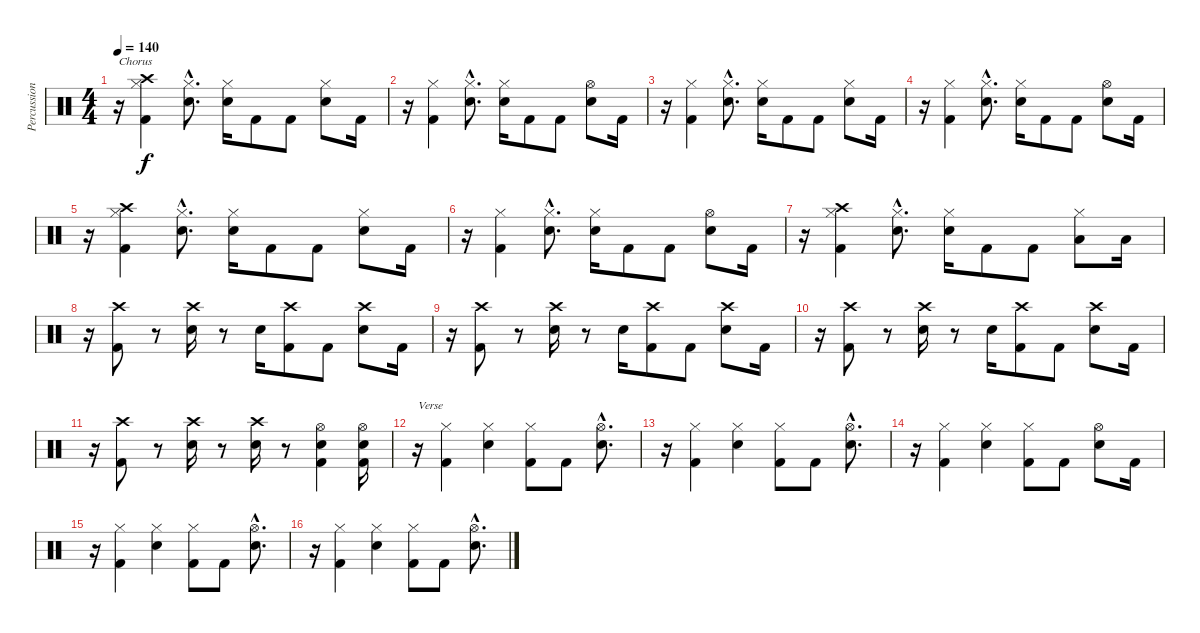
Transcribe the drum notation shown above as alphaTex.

\track ("Percussion" "Percussion") {instrument percussion}
\staff {score}
\articulation defaults
\ts (4 4)
\tempo 140
\clef neutral
\ks c
r.16{txt "Chorus" dy f} ("Crash high (hit)" "Hi-Hat (closed)" "Kick (hit) 2").4 ("Hi-Hat (closed)"{hac} "Electric Snare (hit)"{hac}).8{d} ("Hi-Hat (closed)" "Electric Snare (hit)").16 "Kick (hit) 2".8 "Kick (hit) 2".8 ("Hi-Hat (closed)" "Electric Snare (hit)").8 "Kick (hit) 2".16 |
r.16 ("Hi-Hat (closed)" "Kick (hit) 2").4 ("Hi-Hat (closed)"{hac} "Electric Snare (hit)"{hac}).8{d} ("Hi-Hat (closed)" "Electric Snare (hit)").16 "Kick (hit) 2".8 "Kick (hit) 2".8 ("Hi-Hat (open)" "Electric Snare (hit)").8 "Kick (hit) 2".16 |
r.16 ("Hi-Hat (closed)" "Kick (hit) 2").4 ("Hi-Hat (closed)"{hac} "Electric Snare (hit)"{hac}).8{d} ("Hi-Hat (closed)" "Electric Snare (hit)").16 "Kick (hit) 2".8 "Kick (hit) 2".8 ("Hi-Hat (closed)" "Electric Snare (hit)").8 "Kick (hit) 2".16 |
r.16 ("Hi-Hat (closed)" "Kick (hit) 2").4 ("Hi-Hat (closed)"{hac} "Electric Snare (hit)"{hac}).8{d} ("Hi-Hat (closed)" "Electric Snare (hit)").16 "Kick (hit) 2".8 "Kick (hit) 2".8 ("Hi-Hat (open)" "Electric Snare (hit)").8 "Kick (hit) 2".16 |
r.16 ("Crash high (hit)" "Hi-Hat (closed)" "Kick (hit) 2").4 ("Hi-Hat (closed)"{hac} "Electric Snare (hit)"{hac}).8{d} ("Hi-Hat (closed)" "Electric Snare (hit)").16 "Kick (hit) 2".8 "Kick (hit) 2".8 ("Hi-Hat (closed)" "Electric Snare (hit)").8 "Kick (hit) 2".16 |
r.16 ("Hi-Hat (closed)" "Kick (hit) 2").4 ("Hi-Hat (closed)"{hac} "Electric Snare (hit)"{hac}).8{d} ("Hi-Hat (closed)" "Electric Snare (hit)").16 "Kick (hit) 2".8 "Kick (hit) 2".8 ("Hi-Hat (open)" "Electric Snare (hit)").8 "Kick (hit) 2".16 |
r.16 ("Crash high (hit)" "Hi-Hat (closed)" "Kick (hit) 2").4 ("Hi-Hat (closed)"{hac} "Electric Snare (hit)"{hac}).8{d} ("Hi-Hat (closed)" "Electric Snare (hit)").16 "Kick (hit) 2".8 "Kick (hit) 2".8 ("Hi-Hat (closed)" "Low Tom (hit)").8 "Low Tom (hit)".16 |
r.16 ("Crash high (hit)" "Kick (hit) 2").8 r.8 ("Crash high (hit)" "Electric Snare (hit)").16 r.8 "Electric Snare (hit)".16 ("Crash high (hit)" "Kick (hit) 2").8 "Kick (hit) 2".8 ("Crash high (hit)" "Electric Snare (hit)").8 "Kick (hit) 2".16 |
r.16 ("Crash high (hit)" "Kick (hit) 2").8 r.8 ("Crash high (hit)" "Electric Snare (hit)").16 r.8 "Electric Snare (hit)".16 ("Crash high (hit)" "Kick (hit) 2").8 "Kick (hit) 2".8 ("Crash high (hit)" "Electric Snare (hit)").8 "Kick (hit) 2".16 |
r.16 ("Crash high (hit)" "Kick (hit) 2").8 r.8 ("Crash high (hit)" "Electric Snare (hit)").16 r.8 "Electric Snare (hit)".16 ("Crash high (hit)" "Kick (hit) 2").8 "Kick (hit) 2".8 ("Crash high (hit)" "Electric Snare (hit)").8 "Kick (hit) 2".16 |
r.16 ("Crash high (hit)" "Kick (hit) 2").8 r.8 ("Crash high (hit)" "Electric Snare (hit)").16 r.8 ("Crash high (hit)" "Electric Snare (hit)").16 r.8 ("Hi-Hat (open)" "Electric Snare (hit)" "Kick (hit) 2").4 ("Hi-Hat (open)" "Electric Snare (hit)" "Kick (hit) 2").16 |
r.16{txt "Verse"} ("Hi-Hat (closed)" "Kick (hit) 2").4 ("Hi-Hat (closed)" "Electric Snare (hit)").4 ("Hi-Hat (closed)" "Kick (hit) 2").8 "Kick (hit) 2".8 ("Hi-Hat (open)"{hac} "Electric Snare (hit)"{hac}).8{d} |
r.16 ("Hi-Hat (closed)" "Kick (hit) 2").4 ("Hi-Hat (closed)" "Electric Snare (hit)").4 ("Hi-Hat (closed)" "Kick (hit) 2").8 "Kick (hit) 2".8 ("Hi-Hat (open)"{hac} "Electric Snare (hit)"{hac}).8{d} |
r.16 ("Hi-Hat (closed)" "Kick (hit) 2").4 ("Hi-Hat (closed)" "Electric Snare (hit)").4 ("Hi-Hat (closed)" "Kick (hit) 2").8 "Kick (hit) 2".8 ("Hi-Hat (open)" "Electric Snare (hit)").8 "Kick (hit) 2".16 |
r.16 ("Hi-Hat (closed)" "Kick (hit) 2").4 ("Hi-Hat (closed)" "Electric Snare (hit)").4 ("Hi-Hat (closed)" "Kick (hit) 2").8 "Kick (hit) 2".8 ("Hi-Hat (open)"{hac} "Electric Snare (hit)"{hac}).8{d} |
r.16 ("Hi-Hat (closed)" "Kick (hit) 2").4 ("Hi-Hat (closed)" "Electric Snare (hit)").4 ("Hi-Hat (closed)" "Kick (hit) 2").8 "Kick (hit) 2".8 ("Hi-Hat (open)"{hac} "Electric Snare (hit)"{hac}).8{d}
